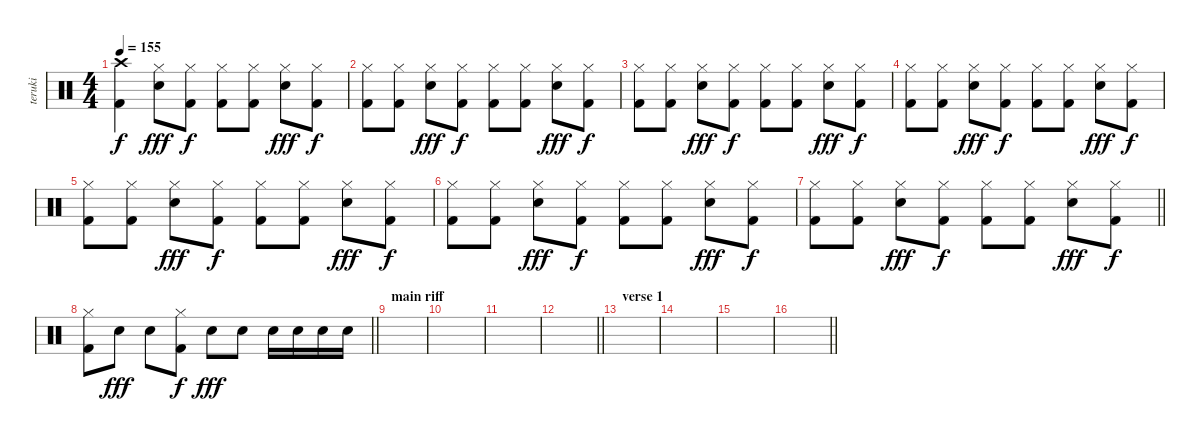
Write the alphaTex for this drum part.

\track ("teruki" "teruki") {instrument percussion}
\staff {score}
\articulation defaults
\ts (4 4)
\tempo 155
\clef neutral
\ks c
("Crash high (hit)" "Kick (hit) 2").4{dy f} ("Hi-Hat (closed)" "Electric Snare (hit)").8{dy fff} ("Hi-Hat (closed)" "Kick (hit) 2").8{dy f} ("Hi-Hat (closed)" "Kick (hit) 2").8 ("Hi-Hat (closed)" "Kick (hit) 2").8 ("Hi-Hat (closed)" "Electric Snare (hit)").8{dy fff} ("Hi-Hat (closed)" "Kick (hit) 2").8{dy f} |
("Hi-Hat (closed)" "Kick (hit) 2").8 ("Hi-Hat (closed)" "Kick (hit) 2").8 ("Hi-Hat (closed)" "Electric Snare (hit)").8{dy fff} ("Hi-Hat (closed)" "Kick (hit) 2").8{dy f} ("Hi-Hat (closed)" "Kick (hit) 2").8 ("Hi-Hat (closed)" "Kick (hit) 2").8 ("Hi-Hat (closed)" "Electric Snare (hit)").8{dy fff} ("Hi-Hat (closed)" "Kick (hit) 2").8{dy f} |
("Hi-Hat (closed)" "Kick (hit) 2").8 ("Hi-Hat (closed)" "Kick (hit) 2").8 ("Hi-Hat (closed)" "Electric Snare (hit)").8{dy fff} ("Hi-Hat (closed)" "Kick (hit) 2").8{dy f} ("Hi-Hat (closed)" "Kick (hit) 2").8 ("Hi-Hat (closed)" "Kick (hit) 2").8 ("Hi-Hat (closed)" "Electric Snare (hit)").8{dy fff} ("Hi-Hat (closed)" "Kick (hit) 2").8{dy f} |
("Hi-Hat (closed)" "Kick (hit) 2").8 ("Hi-Hat (closed)" "Kick (hit) 2").8 ("Hi-Hat (closed)" "Electric Snare (hit)").8{dy fff} ("Hi-Hat (closed)" "Kick (hit) 2").8{dy f} ("Hi-Hat (closed)" "Kick (hit) 2").8 ("Hi-Hat (closed)" "Kick (hit) 2").8 ("Hi-Hat (closed)" "Electric Snare (hit)").8{dy fff} ("Hi-Hat (closed)" "Kick (hit) 2").8{dy f} |
("Hi-Hat (closed)" "Kick (hit) 2").8 ("Hi-Hat (closed)" "Kick (hit) 2").8 ("Hi-Hat (closed)" "Electric Snare (hit)").8{dy fff} ("Hi-Hat (closed)" "Kick (hit) 2").8{dy f} ("Hi-Hat (closed)" "Kick (hit) 2").8 ("Hi-Hat (closed)" "Kick (hit) 2").8 ("Hi-Hat (closed)" "Electric Snare (hit)").8{dy fff} ("Hi-Hat (closed)" "Kick (hit) 2").8{dy f} |
("Hi-Hat (closed)" "Kick (hit) 2").8 ("Hi-Hat (closed)" "Kick (hit) 2").8 ("Hi-Hat (closed)" "Electric Snare (hit)").8{dy fff} ("Hi-Hat (closed)" "Kick (hit) 2").8{dy f} ("Hi-Hat (closed)" "Kick (hit) 2").8 ("Hi-Hat (closed)" "Kick (hit) 2").8 ("Hi-Hat (closed)" "Electric Snare (hit)").8{dy fff} ("Hi-Hat (closed)" "Kick (hit) 2").8{dy f} |
\barLineRight lightlight
("Hi-Hat (closed)" "Kick (hit) 2").8 ("Hi-Hat (closed)" "Kick (hit) 2").8 ("Hi-Hat (closed)" "Electric Snare (hit)").8{dy fff} ("Hi-Hat (closed)" "Kick (hit) 2").8{dy f} ("Hi-Hat (closed)" "Kick (hit) 2").8 ("Hi-Hat (closed)" "Kick (hit) 2").8 ("Hi-Hat (closed)" "Electric Snare (hit)").8{dy fff} ("Hi-Hat (closed)" "Kick (hit) 2").8{dy f} |
\barLineRight lightlight
("Hi-Hat (closed)" "Kick (hit) 2").8 "Electric Snare (hit)".8{dy fff} "Electric Snare (hit)".8 ("Hi-Hat (closed)" "Kick (hit) 2").8{dy f} "Electric Snare (hit)".8{dy fff} "Electric Snare (hit)".8 "Electric Snare (hit)".16 "Electric Snare (hit)".16 "Electric Snare (hit)".16 "Electric Snare (hit)".16 |
\section ("" "main riff")
|
|
|
\barLineRight lightlight
|
\section ("" "verse 1")
|
|
|
\barLineRight lightlight
